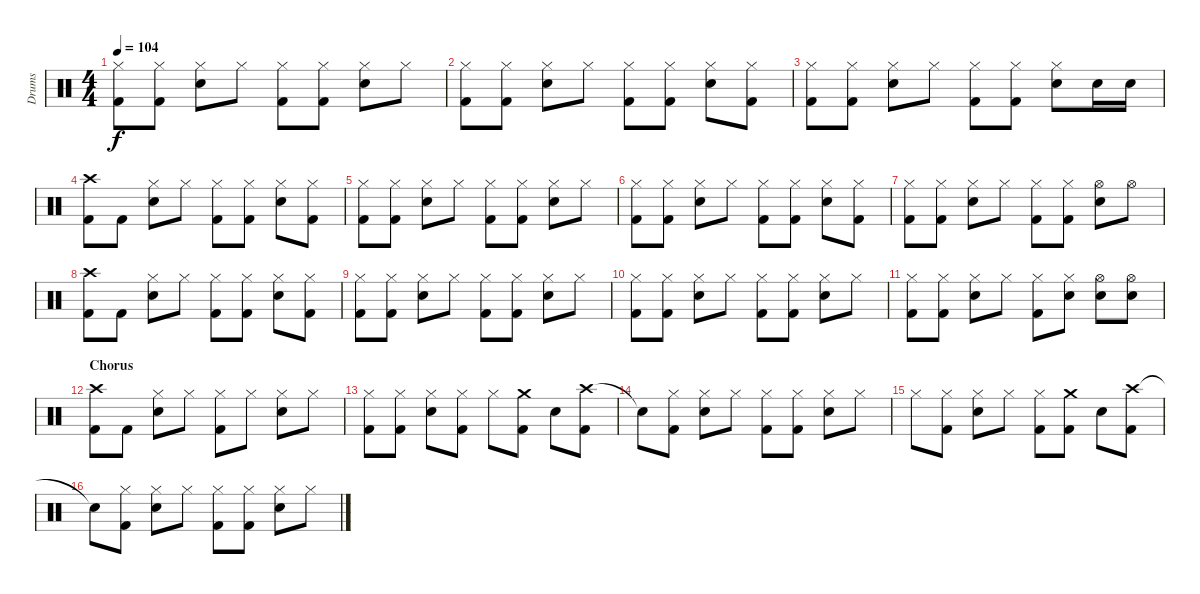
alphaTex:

\track ("Drums" "Drums") {instrument percussion}
\staff {score}
\articulation defaults
\ts (4 4)
\tempo 104
\clef neutral
\ks c
("Hi-Hat (closed)" "Kick (hit) 2").8{dy f} ("Hi-Hat (closed)" "Kick (hit) 2").8 ("Hi-Hat (closed)" "Electric Snare (hit)").8 "Hi-Hat (closed)".8 ("Hi-Hat (closed)" "Kick (hit) 2").8 ("Hi-Hat (closed)" "Kick (hit) 2").8 ("Hi-Hat (closed)" "Electric Snare (hit)").8 "Hi-Hat (closed)".8 |
("Hi-Hat (closed)" "Kick (hit) 2").8 ("Hi-Hat (closed)" "Kick (hit) 2").8 ("Hi-Hat (closed)" "Electric Snare (hit)").8 "Hi-Hat (closed)".8 ("Hi-Hat (closed)" "Kick (hit) 2").8 ("Hi-Hat (closed)" "Kick (hit) 2").8 ("Hi-Hat (closed)" "Electric Snare (hit)").8 ("Hi-Hat (closed)" "Kick (hit) 2").8 |
("Hi-Hat (closed)" "Kick (hit) 2").8 ("Hi-Hat (closed)" "Kick (hit) 2").8 ("Hi-Hat (closed)" "Electric Snare (hit)").8 "Hi-Hat (closed)".8 ("Hi-Hat (closed)" "Kick (hit) 2").8 ("Hi-Hat (closed)" "Kick (hit) 2").8 ("Hi-Hat (closed)" "Electric Snare (hit)").8 "Electric Snare (hit)".16 "Electric Snare (hit)".16 |
("Crash high (hit)" "Kick (hit) 2").8 "Kick (hit) 2".8 ("Hi-Hat (closed)" "Electric Snare (hit)").8 "Hi-Hat (closed)".8 ("Hi-Hat (closed)" "Kick (hit) 2").8 ("Hi-Hat (closed)" "Kick (hit) 2").8 ("Hi-Hat (closed)" "Electric Snare (hit)").8 ("Hi-Hat (closed)" "Kick (hit) 2").8 |
("Hi-Hat (closed)" "Kick (hit) 2").8 ("Hi-Hat (closed)" "Kick (hit) 2").8 ("Hi-Hat (closed)" "Electric Snare (hit)").8 "Hi-Hat (closed)".8 ("Hi-Hat (closed)" "Kick (hit) 2").8 ("Hi-Hat (closed)" "Kick (hit) 2").8 ("Hi-Hat (closed)" "Electric Snare (hit)").8 "Hi-Hat (closed)".8 |
("Hi-Hat (closed)" "Kick (hit) 2").8 ("Hi-Hat (closed)" "Kick (hit) 2").8 ("Hi-Hat (closed)" "Electric Snare (hit)").8 "Hi-Hat (closed)".8 ("Hi-Hat (closed)" "Kick (hit) 2").8 ("Hi-Hat (closed)" "Kick (hit) 2").8 ("Hi-Hat (closed)" "Electric Snare (hit)").8 ("Hi-Hat (closed)" "Kick (hit) 2").8 |
("Hi-Hat (closed)" "Kick (hit) 2").8 ("Hi-Hat (closed)" "Kick (hit) 2").8 ("Hi-Hat (closed)" "Electric Snare (hit)").8 "Hi-Hat (closed)".8 ("Hi-Hat (closed)" "Kick (hit) 2").8 ("Hi-Hat (closed)" "Kick (hit) 2").8 ("Hi-Hat (open)" "Electric Snare (hit)").8 "Hi-Hat (open)".8 |
("Crash high (hit)" "Kick (hit) 2").8 "Kick (hit) 2".8 ("Hi-Hat (closed)" "Electric Snare (hit)").8 "Hi-Hat (closed)".8 ("Hi-Hat (closed)" "Kick (hit) 2").8 ("Hi-Hat (closed)" "Kick (hit) 2").8 ("Hi-Hat (closed)" "Electric Snare (hit)").8 ("Hi-Hat (closed)" "Kick (hit) 2").8 |
("Hi-Hat (closed)" "Kick (hit) 2").8 ("Hi-Hat (closed)" "Kick (hit) 2").8 ("Hi-Hat (closed)" "Electric Snare (hit)").8 "Hi-Hat (closed)".8 ("Hi-Hat (closed)" "Kick (hit) 2").8 ("Hi-Hat (closed)" "Kick (hit) 2").8 ("Hi-Hat (closed)" "Electric Snare (hit)").8 "Hi-Hat (closed)".8 |
("Hi-Hat (closed)" "Kick (hit) 2").8 ("Hi-Hat (closed)" "Kick (hit) 2").8 ("Hi-Hat (closed)" "Electric Snare (hit)").8 "Hi-Hat (closed)".8 ("Hi-Hat (closed)" "Kick (hit) 2").8 ("Hi-Hat (closed)" "Kick (hit) 2").8 ("Hi-Hat (closed)" "Electric Snare (hit)").8 "Hi-Hat (closed)".8 |
("Hi-Hat (closed)" "Kick (hit) 2").8 ("Hi-Hat (closed)" "Kick (hit) 2").8 ("Hi-Hat (closed)" "Electric Snare (hit)").8 "Hi-Hat (closed)".8 ("Hi-Hat (closed)" "Kick (hit) 2").8 ("Hi-Hat (closed)" "Electric Snare (hit)").8 ("Hi-Hat (open)" "Electric Snare (hit)").8 ("Hi-Hat (open)" "Electric Snare (hit)").8 |
\section ("" "Chorus")
("Crash high (hit)" "Kick (hit) 2").8 "Kick (hit) 2".8 ("Hi-Hat (closed)" "Electric Snare (hit)").8 "Hi-Hat (closed)".8 ("Hi-Hat (closed)" "Kick (hit) 2").8 "Hi-Hat (closed)".8 ("Hi-Hat (closed)" "Electric Snare (hit)").8 "Hi-Hat (closed)".8 |
("Hi-Hat (closed)" "Kick (hit) 2").8 ("Hi-Hat (closed)" "Kick (hit) 2").8 ("Hi-Hat (closed)" "Electric Snare (hit)").8 ("Hi-Hat (closed)" "Kick (hit) 2").8 "Hi-Hat (closed)".8 ("Crash medium (hit)" "Kick (hit) 2").8 "Electric Snare (hit)".8 ("Crash high (hit)" "Kick (hit) 2").8 |
"Snare (hit)"{t}.8 ("Hi-Hat (closed)" "Kick (hit) 2").8 ("Hi-Hat (closed)" "Electric Snare (hit)").8 "Hi-Hat (closed)".8 ("Hi-Hat (closed)" "Kick (hit) 2").8 ("Hi-Hat (closed)" "Kick (hit) 2").8 ("Hi-Hat (closed)" "Electric Snare (hit)").8 "Hi-Hat (closed)".8 |
"Hi-Hat (closed)".8 ("Hi-Hat (closed)" "Kick (hit) 2").8 ("Hi-Hat (closed)" "Electric Snare (hit)").8 "Hi-Hat (closed)".8 ("Hi-Hat (closed)" "Kick (hit) 2").8 ("Crash medium (hit)" "Kick (hit) 2").8 "Electric Snare (hit)".8 ("Crash high (hit)" "Kick (hit) 2").8 |
"Snare (hit)"{t}.8 ("Hi-Hat (closed)" "Kick (hit) 2").8 ("Hi-Hat (closed)" "Electric Snare (hit)").8 "Hi-Hat (closed)".8 ("Hi-Hat (closed)" "Kick (hit) 2").8 ("Hi-Hat (closed)" "Kick (hit) 2").8 ("Hi-Hat (closed)" "Electric Snare (hit)").8 "Hi-Hat (closed)".8
